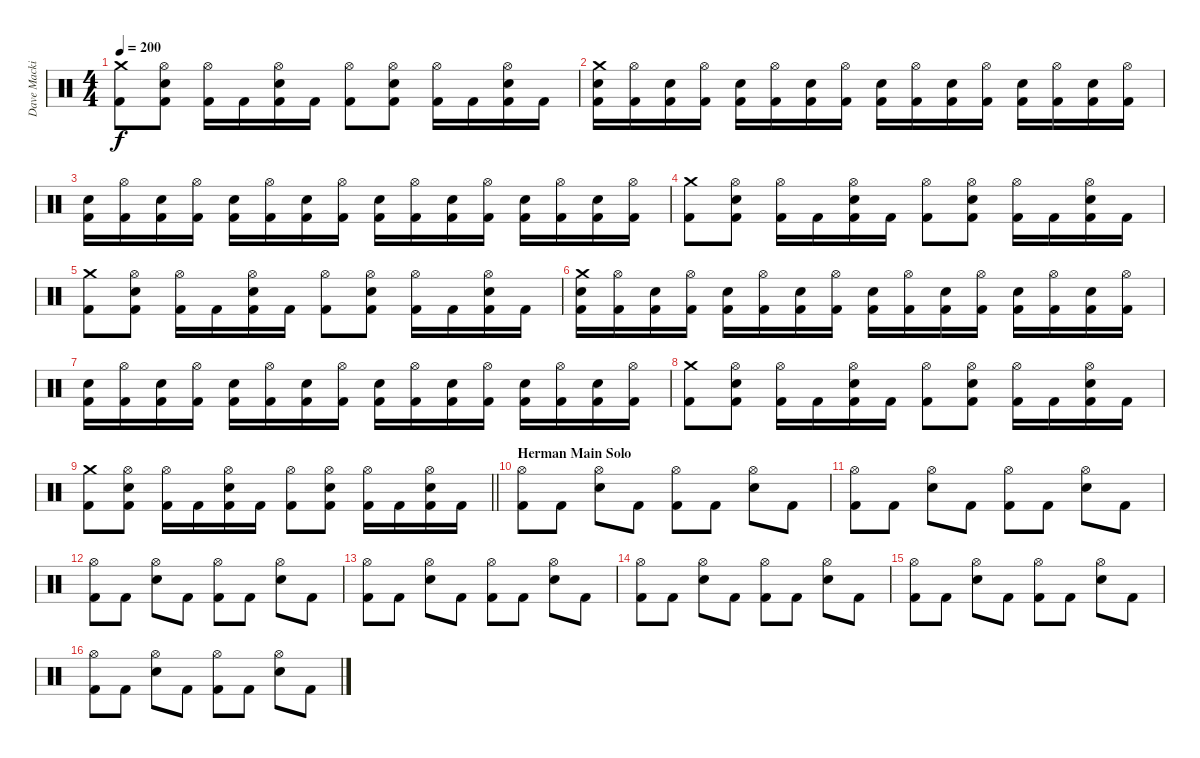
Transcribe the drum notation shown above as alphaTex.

\track ("Dave Mackintosh | Drums" "Dave Macki") {instrument percussion}
\staff {score}
\articulation defaults
\ts (4 4)
\tempo 200
\clef neutral
\ks c
("Crash medium (hit)" "Kick (hit) 2").8{dy f} ("Hi-Hat (open)" "Snare (hit) 2" "Kick (hit) 2").8 ("Hi-Hat (open)" "Kick (hit) 2").16 "Kick (hit) 2".16 ("Hi-Hat (open)" "Snare (hit) 2" "Kick (hit) 2").16 "Kick (hit) 2".16 ("Hi-Hat (open)" "Kick (hit) 2").8 ("Hi-Hat (open)" "Snare (hit) 2" "Kick (hit) 2").8 ("Hi-Hat (open)" "Kick (hit) 2").16 "Kick (hit) 2".16 ("Hi-Hat (open)" "Snare (hit) 2" "Kick (hit) 2").16 "Kick (hit) 2".16 |
("Crash medium (hit)" "Snare (hit) 2" "Kick (hit) 2").16 ("Hi-Hat (open)" "Kick (hit) 2").16 ("Snare (hit) 2" "Kick (hit) 2").16 ("Hi-Hat (open)" "Kick (hit) 2").16 ("Snare (hit) 2" "Kick (hit) 2").16 ("Hi-Hat (open)" "Kick (hit) 2").16 ("Snare (hit) 2" "Kick (hit) 2").16 ("Hi-Hat (open)" "Kick (hit) 2").16 ("Snare (hit) 2" "Kick (hit) 2").16 ("Hi-Hat (open)" "Kick (hit) 2").16 ("Snare (hit) 2" "Kick (hit) 2").16 ("Hi-Hat (open)" "Kick (hit) 2").16 ("Snare (hit) 2" "Kick (hit) 2").16 ("Hi-Hat (open)" "Kick (hit) 2").16 ("Snare (hit) 2" "Kick (hit) 2").16 ("Hi-Hat (open)" "Kick (hit) 2").16 |
("Snare (hit) 2" "Kick (hit) 2").16 ("Hi-Hat (open)" "Kick (hit) 2").16 ("Snare (hit) 2" "Kick (hit) 2").16 ("Hi-Hat (open)" "Kick (hit) 2").16 ("Snare (hit) 2" "Kick (hit) 2").16 ("Hi-Hat (open)" "Kick (hit) 2").16 ("Snare (hit) 2" "Kick (hit) 2").16 ("Hi-Hat (open)" "Kick (hit) 2").16 ("Snare (hit) 2" "Kick (hit) 2").16 ("Hi-Hat (open)" "Kick (hit) 2").16 ("Snare (hit) 2" "Kick (hit) 2").16 ("Hi-Hat (open)" "Kick (hit) 2").16 ("Snare (hit) 2" "Kick (hit) 2").16 ("Hi-Hat (open)" "Kick (hit) 2").16 ("Snare (hit) 2" "Kick (hit) 2").16 ("Hi-Hat (open)" "Kick (hit) 2").16 |
("Crash medium (hit)" "Kick (hit) 2").8 ("Hi-Hat (open)" "Snare (hit) 2" "Kick (hit) 2").8 ("Hi-Hat (open)" "Kick (hit) 2").16 "Kick (hit) 2".16 ("Hi-Hat (open)" "Snare (hit) 2" "Kick (hit) 2").16 "Kick (hit) 2".16 ("Hi-Hat (open)" "Kick (hit) 2").8 ("Hi-Hat (open)" "Snare (hit) 2" "Kick (hit) 2").8 ("Hi-Hat (open)" "Kick (hit) 2").16 "Kick (hit) 2".16 ("Hi-Hat (open)" "Snare (hit) 2" "Kick (hit) 2").16 "Kick (hit) 2".16 |
("Crash medium (hit)" "Kick (hit) 2").8 ("Hi-Hat (open)" "Snare (hit) 2" "Kick (hit) 2").8 ("Hi-Hat (open)" "Kick (hit) 2").16 "Kick (hit) 2".16 ("Hi-Hat (open)" "Snare (hit) 2" "Kick (hit) 2").16 "Kick (hit) 2".16 ("Hi-Hat (open)" "Kick (hit) 2").8 ("Hi-Hat (open)" "Snare (hit) 2" "Kick (hit) 2").8 ("Hi-Hat (open)" "Kick (hit) 2").16 "Kick (hit) 2".16 ("Hi-Hat (open)" "Snare (hit) 2" "Kick (hit) 2").16 "Kick (hit) 2".16 |
("Crash medium (hit)" "Snare (hit) 2" "Kick (hit) 2").16 ("Hi-Hat (open)" "Kick (hit) 2").16 ("Snare (hit) 2" "Kick (hit) 2").16 ("Hi-Hat (open)" "Kick (hit) 2").16 ("Snare (hit) 2" "Kick (hit) 2").16 ("Hi-Hat (open)" "Kick (hit) 2").16 ("Snare (hit) 2" "Kick (hit) 2").16 ("Hi-Hat (open)" "Kick (hit) 2").16 ("Snare (hit) 2" "Kick (hit) 2").16 ("Hi-Hat (open)" "Kick (hit) 2").16 ("Snare (hit) 2" "Kick (hit) 2").16 ("Hi-Hat (open)" "Kick (hit) 2").16 ("Snare (hit) 2" "Kick (hit) 2").16 ("Hi-Hat (open)" "Kick (hit) 2").16 ("Snare (hit) 2" "Kick (hit) 2").16 ("Hi-Hat (open)" "Kick (hit) 2").16 |
("Snare (hit) 2" "Kick (hit) 2").16 ("Hi-Hat (open)" "Kick (hit) 2").16 ("Snare (hit) 2" "Kick (hit) 2").16 ("Hi-Hat (open)" "Kick (hit) 2").16 ("Snare (hit) 2" "Kick (hit) 2").16 ("Hi-Hat (open)" "Kick (hit) 2").16 ("Snare (hit) 2" "Kick (hit) 2").16 ("Hi-Hat (open)" "Kick (hit) 2").16 ("Snare (hit) 2" "Kick (hit) 2").16 ("Hi-Hat (open)" "Kick (hit) 2").16 ("Snare (hit) 2" "Kick (hit) 2").16 ("Hi-Hat (open)" "Kick (hit) 2").16 ("Snare (hit) 2" "Kick (hit) 2").16 ("Hi-Hat (open)" "Kick (hit) 2").16 ("Snare (hit) 2" "Kick (hit) 2").16 ("Hi-Hat (open)" "Kick (hit) 2").16 |
("Crash medium (hit)" "Kick (hit) 2").8 ("Hi-Hat (open)" "Snare (hit) 2" "Kick (hit) 2").8 ("Hi-Hat (open)" "Kick (hit) 2").16 "Kick (hit) 2".16 ("Hi-Hat (open)" "Snare (hit) 2" "Kick (hit) 2").16 "Kick (hit) 2".16 ("Hi-Hat (open)" "Kick (hit) 2").8 ("Hi-Hat (open)" "Snare (hit) 2" "Kick (hit) 2").8 ("Hi-Hat (open)" "Kick (hit) 2").16 "Kick (hit) 2".16 ("Hi-Hat (open)" "Snare (hit) 2" "Kick (hit) 2").16 "Kick (hit) 2".16 |
\barLineRight lightlight
("Crash medium (hit)" "Kick (hit) 2").8 ("Hi-Hat (open)" "Snare (hit) 2" "Kick (hit) 2").8 ("Hi-Hat (open)" "Kick (hit) 2").16 "Kick (hit) 2".16 ("Hi-Hat (open)" "Snare (hit) 2" "Kick (hit) 2").16 "Kick (hit) 2".16 ("Hi-Hat (open)" "Kick (hit) 2").8 ("Hi-Hat (open)" "Snare (hit) 2" "Kick (hit) 2").8 ("Hi-Hat (open)" "Kick (hit) 2").16 "Kick (hit) 2".16 ("Hi-Hat (open)" "Snare (hit) 2" "Kick (hit) 2").16 "Kick (hit) 2".16 |
\section ("" "Herman Main Solo")
("Hi-Hat (open)" "Kick (hit) 2").8 "Kick (hit) 2".8 ("Hi-Hat (open)" "Snare (hit) 2").8 "Kick (hit) 2".8 ("Hi-Hat (open)" "Kick (hit) 2").8 "Kick (hit) 2".8 ("Hi-Hat (open)" "Snare (hit) 2").8 "Kick (hit) 2".8 |
("Hi-Hat (open)" "Kick (hit) 2").8 "Kick (hit) 2".8 ("Hi-Hat (open)" "Snare (hit) 2").8 "Kick (hit) 2".8 ("Hi-Hat (open)" "Kick (hit) 2").8 "Kick (hit) 2".8 ("Hi-Hat (open)" "Snare (hit) 2").8 "Kick (hit) 2".8 |
("Hi-Hat (open)" "Kick (hit) 2").8 "Kick (hit) 2".8 ("Hi-Hat (open)" "Snare (hit) 2").8 "Kick (hit) 2".8 ("Hi-Hat (open)" "Kick (hit) 2").8 "Kick (hit) 2".8 ("Hi-Hat (open)" "Snare (hit) 2").8 "Kick (hit) 2".8 |
("Hi-Hat (open)" "Kick (hit) 2").8 "Kick (hit) 2".8 ("Hi-Hat (open)" "Snare (hit) 2").8 "Kick (hit) 2".8 ("Hi-Hat (open)" "Kick (hit) 2").8 "Kick (hit) 2".8 ("Hi-Hat (open)" "Snare (hit) 2").8 "Kick (hit) 2".8 |
("Hi-Hat (open)" "Kick (hit) 2").8 "Kick (hit) 2".8 ("Hi-Hat (open)" "Snare (hit) 2").8 "Kick (hit) 2".8 ("Hi-Hat (open)" "Kick (hit) 2").8 "Kick (hit) 2".8 ("Hi-Hat (open)" "Snare (hit) 2").8 "Kick (hit) 2".8 |
("Hi-Hat (open)" "Kick (hit) 2").8 "Kick (hit) 2".8 ("Hi-Hat (open)" "Snare (hit) 2").8 "Kick (hit) 2".8 ("Hi-Hat (open)" "Kick (hit) 2").8 "Kick (hit) 2".8 ("Hi-Hat (open)" "Snare (hit) 2").8 "Kick (hit) 2".8 |
("Hi-Hat (open)" "Kick (hit) 2").8 "Kick (hit) 2".8 ("Hi-Hat (open)" "Snare (hit) 2").8 "Kick (hit) 2".8 ("Hi-Hat (open)" "Kick (hit) 2").8 "Kick (hit) 2".8 ("Hi-Hat (open)" "Snare (hit) 2").8 "Kick (hit) 2".8
